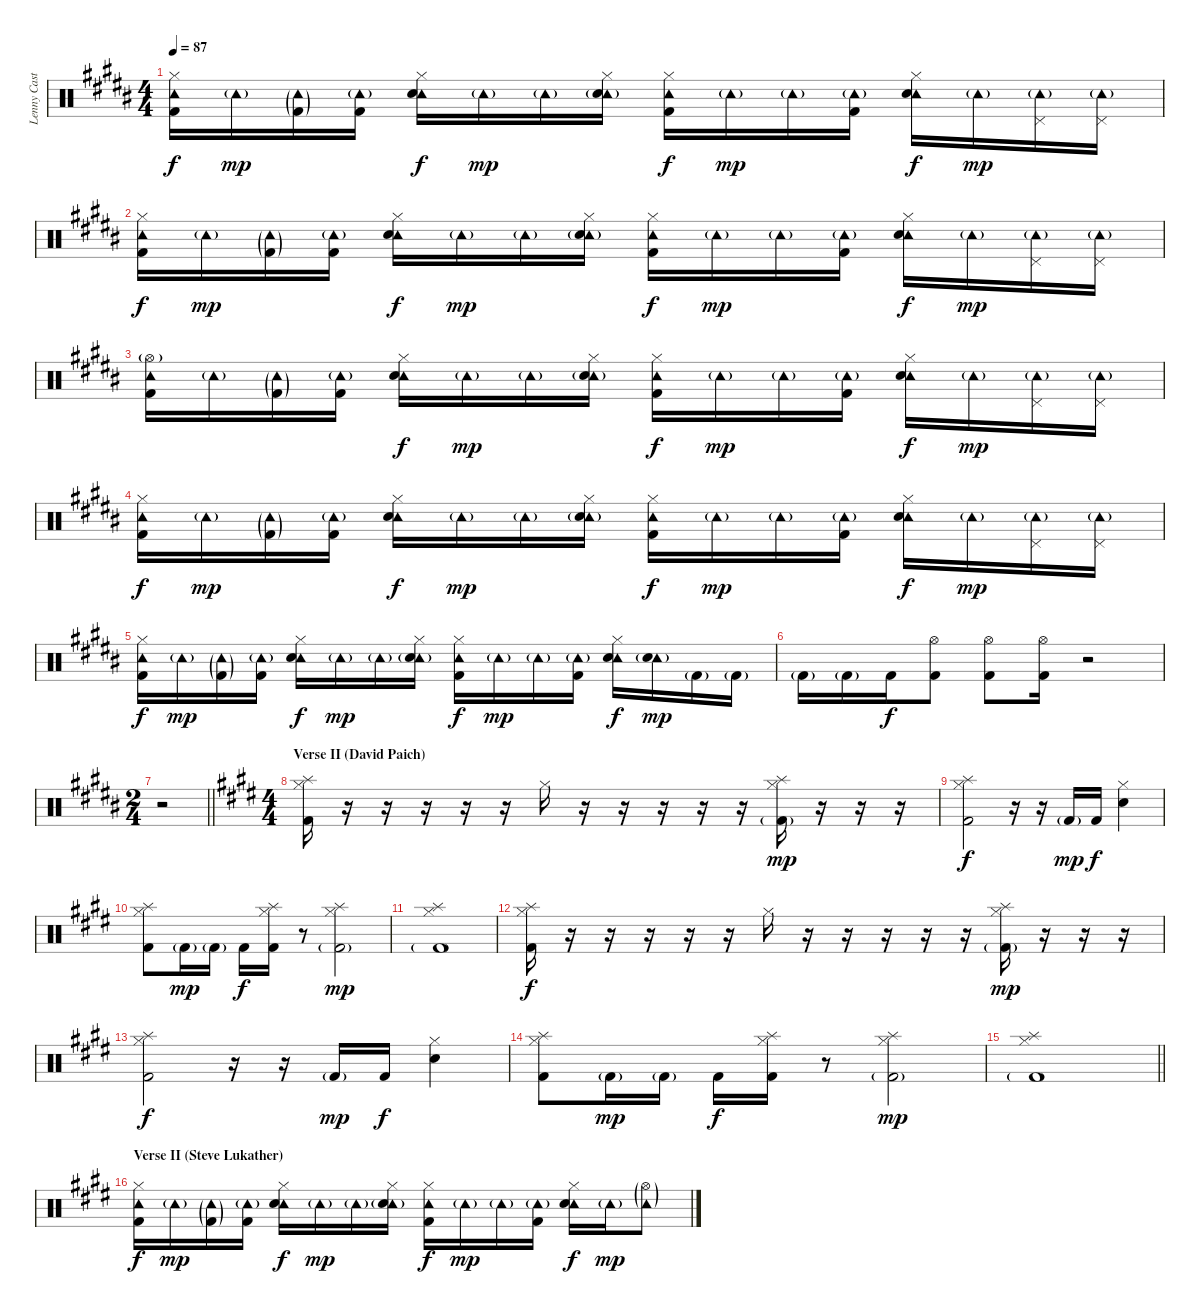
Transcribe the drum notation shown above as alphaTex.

\track ("Lenny Castro (Drums)" "Lenny Cast") {instrument percussion}
\staff {score}
\articulation defaults
\ts (4 4)
\tempo 87
\clef neutral
\ks b
("Hi-Hat (closed)" "Tambourine (hit)" "Kick (hit) 2").16{dy f} "Tambourine (hit)"{g}.16{dy mp} ("Tambourine (hit)"{g} "Kick (hit) 2"{g}).16 ("Tambourine (hit)"{g} "Kick (hit) 2").16 ("Hi-Hat (closed)" "Tambourine (hit)" "Electric Snare (hit)").16{dy f} "Tambourine (hit)"{g}.16{dy mp} "Tambourine (hit)"{g}.16 ("Hi-Hat (closed)" "Tambourine (hit)"{g} "Electric Snare (hit)"{g}).16 ("Hi-Hat (closed)" "Tambourine (hit)" "Kick (hit) 2").16{dy f} "Tambourine (hit)"{g}.16{dy mp} "Tambourine (hit)"{g}.16 ("Tambourine (hit)"{g} "Kick (hit) 2").16 ("Hi-Hat (closed)" "Tambourine (hit)" "Electric Snare (hit)").16{dy f} "Tambourine (hit)"{g}.16{dy mp} ("Pedal Hi-Hat (hit)" "Tambourine (hit)"{g}).16 ("Pedal Hi-Hat (hit)" "Tambourine (hit)"{g}).16 |
("Hi-Hat (closed)" "Tambourine (hit)" "Kick (hit) 2").16{dy f} "Tambourine (hit)"{g}.16{dy mp} ("Tambourine (hit)"{g} "Kick (hit) 2"{g}).16 ("Tambourine (hit)"{g} "Kick (hit) 2").16 ("Hi-Hat (closed)" "Tambourine (hit)" "Electric Snare (hit)").16{dy f} "Tambourine (hit)"{g}.16{dy mp} "Tambourine (hit)"{g}.16 ("Hi-Hat (closed)" "Tambourine (hit)"{g} "Electric Snare (hit)"{g}).16 ("Hi-Hat (closed)" "Tambourine (hit)" "Kick (hit) 2").16{dy f} "Tambourine (hit)"{g}.16{dy mp} "Tambourine (hit)"{g}.16 ("Tambourine (hit)"{g} "Kick (hit) 2").16 ("Hi-Hat (closed)" "Tambourine (hit)" "Electric Snare (hit)").16{dy f} "Tambourine (hit)"{g}.16{dy mp} ("Pedal Hi-Hat (hit)" "Tambourine (hit)"{g}).16 ("Pedal Hi-Hat (hit)" "Tambourine (hit)"{g}).16 |
("Hi-Hat (open)"{g} "Tambourine (hit)" "Kick (hit) 2").16 "Tambourine (hit)"{g}.16 ("Tambourine (hit)"{g} "Kick (hit) 2"{g}).16 ("Tambourine (hit)"{g} "Kick (hit) 2").16 ("Hi-Hat (closed)" "Tambourine (hit)" "Electric Snare (hit)").16{dy f} "Tambourine (hit)"{g}.16{dy mp} "Tambourine (hit)"{g}.16 ("Hi-Hat (closed)" "Tambourine (hit)"{g} "Electric Snare (hit)"{g}).16 ("Hi-Hat (closed)" "Tambourine (hit)" "Kick (hit) 2").16{dy f} "Tambourine (hit)"{g}.16{dy mp} "Tambourine (hit)"{g}.16 ("Tambourine (hit)"{g} "Kick (hit) 2").16 ("Hi-Hat (closed)" "Tambourine (hit)" "Electric Snare (hit)").16{dy f} "Tambourine (hit)"{g}.16{dy mp} ("Pedal Hi-Hat (hit)" "Tambourine (hit)"{g}).16 ("Pedal Hi-Hat (hit)" "Tambourine (hit)"{g}).16 |
("Hi-Hat (closed)" "Tambourine (hit)" "Kick (hit) 2").16{dy f} "Tambourine (hit)"{g}.16{dy mp} ("Tambourine (hit)"{g} "Kick (hit) 2"{g}).16 ("Tambourine (hit)"{g} "Kick (hit) 2").16 ("Hi-Hat (closed)" "Tambourine (hit)" "Electric Snare (hit)").16{dy f} "Tambourine (hit)"{g}.16{dy mp} "Tambourine (hit)"{g}.16 ("Hi-Hat (closed)" "Tambourine (hit)"{g} "Electric Snare (hit)"{g}).16 ("Hi-Hat (closed)" "Tambourine (hit)" "Kick (hit) 2").16{dy f} "Tambourine (hit)"{g}.16{dy mp} "Tambourine (hit)"{g}.16 ("Tambourine (hit)"{g} "Kick (hit) 2").16 ("Hi-Hat (closed)" "Tambourine (hit)" "Electric Snare (hit)").16{dy f} "Tambourine (hit)"{g}.16{dy mp} ("Pedal Hi-Hat (hit)" "Tambourine (hit)"{g}).16 ("Pedal Hi-Hat (hit)" "Tambourine (hit)"{g}).16 |
("Hi-Hat (closed)" "Tambourine (hit)" "Kick (hit) 2").16{dy f} "Tambourine (hit)"{g}.16{dy mp} ("Tambourine (hit)"{g} "Kick (hit) 2"{g}).16 ("Tambourine (hit)"{g} "Kick (hit) 2").16 ("Hi-Hat (closed)" "Tambourine (hit)" "Electric Snare (hit)").16{dy f} "Tambourine (hit)"{g}.16{dy mp} "Tambourine (hit)"{g}.16 ("Hi-Hat (closed)" "Tambourine (hit)"{g} "Electric Snare (hit)"{g}).16 ("Hi-Hat (closed)" "Tambourine (hit)" "Kick (hit) 2").16{dy f} "Tambourine (hit)"{g}.16{dy mp} "Tambourine (hit)"{g}.16 ("Tambourine (hit)"{g} "Kick (hit) 2").16 ("Hi-Hat (closed)" "Tambourine (hit)" "Electric Snare (hit)").16{dy f} ("Tambourine (hit)"{g} "Electric Snare (hit)"{g}).16{dy mp} "Kick (hit) 2"{g}.16 "Kick (hit) 2"{g}.16 |
"Kick (hit) 2"{g}.16 "Kick (hit) 2"{g}.16 "Kick (hit) 2".16{dy f} ("Hi-Hat (open)" "Kick (hit) 2").8 ("Hi-Hat (open)" "Kick (hit) 2").8 ("Hi-Hat (open)" "Kick (hit) 2").16 r.2 |
\ts (2 4)
\barLineRight lightlight
r.2 |
\ts (4 4)
\section ("" "Verse II (David Paich)")
\ks e
("Splash (hit)" "Hi-Hat (closed)" "Kick (hit) 2").16 r.16 r.16 r.16 r.16 r.16 "Hi-Hat (closed)".16 r.16 r.16 r.16 r.16 r.16 ("Splash (hit)" "Hi-Hat (closed)" "Kick (hit) 2"{g}).16{dy mp} r.16 r.16 r.16 |
("Splash (hit)" "Hi-Hat (closed)" "Kick (hit) 2").2{dy f} r.16 r.16 "Kick (hit) 2"{g}.16{dy mp} "Kick (hit) 2".16{dy f} ("Hi-Hat (closed)" "Electric Snare (hit)").4 |
("Splash (hit)" "Hi-Hat (closed)" "Kick (hit) 2").8 "Kick (hit) 2"{g}.16{dy mp} "Kick (hit) 2"{g}.16 "Kick (hit) 2".16{dy f} ("Splash (hit)" "Hi-Hat (closed)" "Kick (hit) 2").16 r.8 ("Splash (hit)" "Hi-Hat (closed)" "Kick (hit) 2"{g}).2{dy mp} |
("Splash (hit)" "Hi-Hat (closed)" "Kick (hit) 2"{g}).1 |
("Splash (hit)" "Hi-Hat (closed)" "Kick (hit) 2").16{dy f} r.16 r.16 r.16 r.16 r.16 "Hi-Hat (closed)".16 r.16 r.16 r.16 r.16 r.16 ("Splash (hit)" "Hi-Hat (closed)" "Kick (hit) 2"{g}).16{dy mp} r.16 r.16 r.16 |
("Splash (hit)" "Hi-Hat (closed)" "Kick (hit) 2").2{dy f} r.16 r.16 "Kick (hit) 2"{g}.16{dy mp} "Kick (hit) 2".16{dy f} ("Hi-Hat (closed)" "Electric Snare (hit)").4 |
("Splash (hit)" "Hi-Hat (closed)" "Kick (hit) 2").8 "Kick (hit) 2"{g}.16{dy mp} "Kick (hit) 2"{g}.16 "Kick (hit) 2".16{dy f} ("Splash (hit)" "Hi-Hat (closed)" "Kick (hit) 2").16 r.8 ("Splash (hit)" "Hi-Hat (closed)" "Kick (hit) 2"{g}).2{dy mp} |
\barLineRight lightlight
("Splash (hit)" "Hi-Hat (closed)" "Kick (hit) 2"{g}).1 |
\section ("" "Verse II (Steve Lukather)")
("Hi-Hat (closed)" "Tambourine (hit)" "Kick (hit) 2").16{dy f} "Tambourine (hit)"{g}.16{dy mp} ("Tambourine (hit)"{g} "Kick (hit) 2"{g}).16 ("Tambourine (hit)"{g} "Kick (hit) 2").16 ("Hi-Hat (closed)" "Tambourine (hit)" "Electric Snare (hit)").16{dy f} "Tambourine (hit)"{g}.16{dy mp} "Tambourine (hit)"{g}.16 ("Hi-Hat (closed)" "Tambourine (hit)"{g} "Electric Snare (hit)"{g}).16 ("Hi-Hat (closed)" "Tambourine (hit)" "Kick (hit) 2").16{dy f} "Tambourine (hit)"{g}.16{dy mp} "Tambourine (hit)"{g}.16 ("Tambourine (hit)"{g} "Kick (hit) 2").16 ("Hi-Hat (closed)" "Tambourine (hit)" "Electric Snare (hit)").16{dy f} "Tambourine (hit)"{g}.16{dy mp} ("Hi-Hat (open)"{g} "Tambourine (hit)"{g}).8
